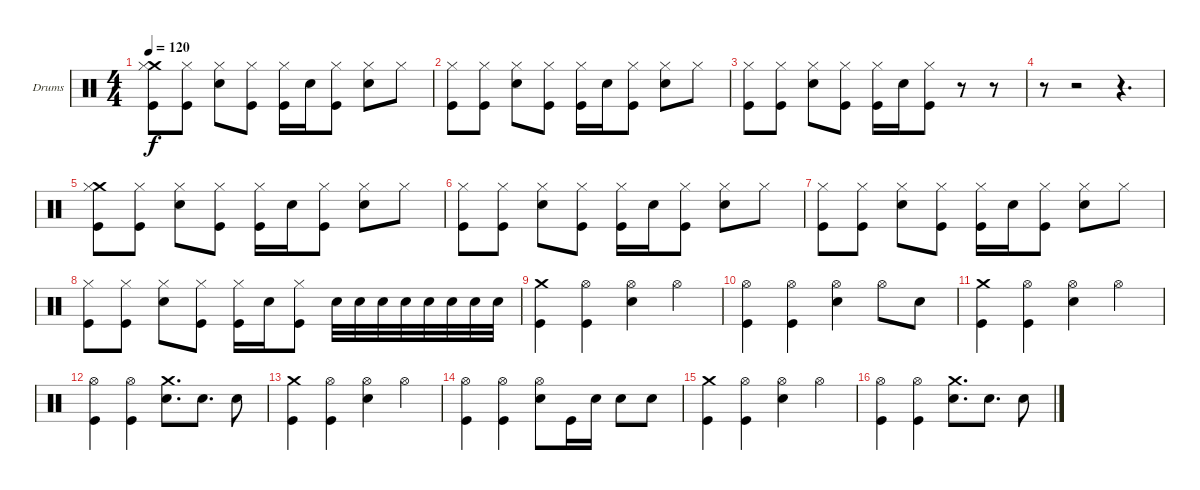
\bracketExtendMode groupsimilarinstruments
\firstSystemTrackNameOrientation horizontal
\otherSystemsTrackNameOrientation horizontal
\track ("Drumkit" "Drums") {instrument percussion}
\staff {score}
\articulation defaults
\ts (4 4)
\tempo 120
\clef neutral
\ks c
("Crash medium (hit)" "Hi-Hat (closed)" "Kick (hit)").8{dy f} ("Hi-Hat (closed)" "Kick (hit)").8 ("Hi-Hat (closed)" "Snare (hit) 2").8 ("Hi-Hat (closed)" "Kick (hit)").8 ("Hi-Hat (closed)" "Kick (hit)").16 "Snare (hit) 2".16 ("Hi-Hat (closed)" "Kick (hit)").8 ("Hi-Hat (closed)" "Snare (hit) 2").8 "Hi-Hat (closed)".8 |
("Hi-Hat (closed)" "Kick (hit)").8 ("Hi-Hat (closed)" "Kick (hit)").8 ("Hi-Hat (closed)" "Snare (hit) 2").8 ("Hi-Hat (closed)" "Kick (hit)").8 ("Hi-Hat (closed)" "Kick (hit)").16 "Snare (hit) 2".16 ("Hi-Hat (closed)" "Kick (hit)").8 ("Hi-Hat (closed)" "Snare (hit) 2").8 "Hi-Hat (closed)".8 |
("Hi-Hat (closed)" "Kick (hit)").8 ("Hi-Hat (closed)" "Kick (hit)").8 ("Hi-Hat (closed)" "Snare (hit) 2").8 ("Hi-Hat (closed)" "Kick (hit)").8 ("Hi-Hat (closed)" "Kick (hit)").16 "Snare (hit) 2".16 ("Hi-Hat (closed)" "Kick (hit)").8 r.8 r.8 |
r.8 r.2 r.4{d} |
("Crash medium (hit)" "Hi-Hat (closed)" "Kick (hit)").8 ("Hi-Hat (closed)" "Kick (hit)").8 ("Hi-Hat (closed)" "Snare (hit) 2").8 ("Hi-Hat (closed)" "Kick (hit)").8 ("Hi-Hat (closed)" "Kick (hit)").16 "Snare (hit) 2".16 ("Hi-Hat (closed)" "Kick (hit)").8 ("Hi-Hat (closed)" "Snare (hit) 2").8 "Hi-Hat (closed)".8 |
("Hi-Hat (closed)" "Kick (hit)").8 ("Hi-Hat (closed)" "Kick (hit)").8 ("Hi-Hat (closed)" "Snare (hit) 2").8 ("Hi-Hat (closed)" "Kick (hit)").8 ("Hi-Hat (closed)" "Kick (hit)").16 "Snare (hit) 2".16 ("Hi-Hat (closed)" "Kick (hit)").8 ("Hi-Hat (closed)" "Snare (hit) 2").8 "Hi-Hat (closed)".8 |
("Hi-Hat (closed)" "Kick (hit)").8 ("Hi-Hat (closed)" "Kick (hit)").8 ("Hi-Hat (closed)" "Snare (hit) 2").8 ("Hi-Hat (closed)" "Kick (hit)").8 ("Hi-Hat (closed)" "Kick (hit)").16 "Snare (hit) 2".16 ("Hi-Hat (closed)" "Kick (hit)").8 ("Hi-Hat (closed)" "Snare (hit) 2").8 "Hi-Hat (closed)".8 |
("Hi-Hat (closed)" "Kick (hit)").8 ("Hi-Hat (closed)" "Kick (hit)").8 ("Hi-Hat (closed)" "Snare (hit) 2").8 ("Hi-Hat (closed)" "Kick (hit)").8 ("Hi-Hat (closed)" "Kick (hit)").16 "Snare (hit) 2".16 ("Hi-Hat (closed)" "Kick (hit)").8 "Snare (hit) 2".32 "Snare (hit) 2".32 "Snare (hit) 2".32 "Snare (hit) 2".32 "Snare (hit) 2".32 "Snare (hit) 2".32 "Snare (hit) 2".32 "Snare (hit) 2".32 |
("Crash medium (hit)" "Kick (hit)").4 ("Hi-Hat (open)" "Kick (hit)").4 ("Hi-Hat (open)" "Snare (hit) 2").4 "Hi-Hat (open)".4 |
("Hi-Hat (open)" "Kick (hit)").4 ("Hi-Hat (open)" "Kick (hit)").4 ("Hi-Hat (open)" "Snare (hit) 2").4 "Hi-Hat (open)".8 "Snare (hit) 2".8 |
("Crash medium (hit)" "Kick (hit)").4 ("Hi-Hat (open)" "Kick (hit)").4 ("Hi-Hat (open)" "Snare (hit) 2").4 "Hi-Hat (open)".4 |
("Hi-Hat (open)" "Kick (hit)").4 ("Hi-Hat (open)" "Kick (hit)").4 ("Crash medium (hit)" "Snare (hit) 2").8{d} "Snare (hit) 2".8{d} "Snare (hit) 2".8 |
("Crash medium (hit)" "Kick (hit)").4 ("Hi-Hat (open)" "Kick (hit)").4 ("Hi-Hat (open)" "Snare (hit) 2").4 "Hi-Hat (open)".4 |
("Hi-Hat (open)" "Kick (hit)").4 ("Hi-Hat (open)" "Kick (hit)").4 ("Hi-Hat (open)" "Snare (hit) 2").8 "Kick (hit)".16 "Snare (hit) 2".16 "Snare (hit) 2".8 "Snare (hit) 2".8 |
("Crash medium (hit)" "Kick (hit)").4 ("Hi-Hat (open)" "Kick (hit)").4 ("Hi-Hat (open)" "Snare (hit) 2").4 "Hi-Hat (open)".4 |
("Hi-Hat (open)" "Kick (hit)").4 ("Hi-Hat (open)" "Kick (hit)").4 ("Crash medium (hit)" "Snare (hit) 2").8{d} "Snare (hit) 2".8{d} "Snare (hit) 2".8
